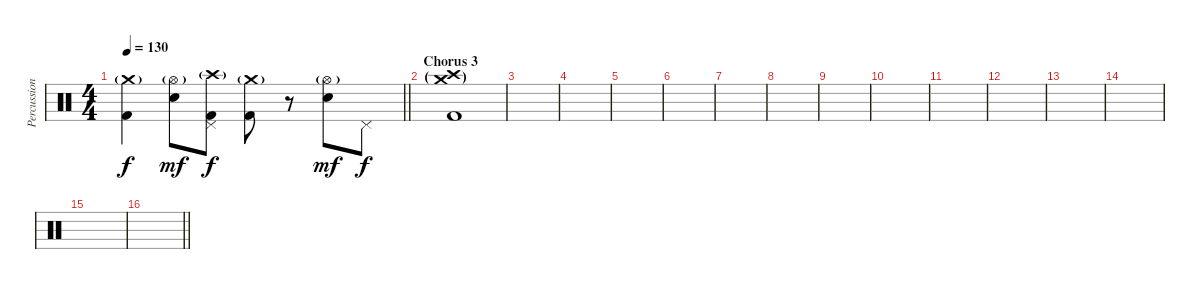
\track ("Percussion" "Percussion") {instrument percussion}
\staff {score}
\articulation defaults
\ts (4 4)
\tempo 130
\clef neutral
\barLineRight lightlight
\ks c
("Crash medium (hit)"{g} "Kick (hit) 2").4{dy f} ("Hi-Hat (open)"{g} "Electric Snare (hit)").8{dy mf} ("Crash high (hit)"{g} "Pedal Hi-Hat (hit)" "Kick (hit) 2").8{dy f} ("Crash medium (hit)"{g} "Kick (hit) 2").8 r.8 ("Hi-Hat (open)"{g} "Electric Snare (hit)").8{dy mf} "Pedal Hi-Hat (hit)".8{dy f} |
\section ("" "Chorus 3")
("Crash medium (hit)"{g} "Crash high (hit)"{g} "Kick (hit) 2").1 |
|
|
|
|
|
|
|
|
|
|
|
|
|
\barLineRight lightlight
